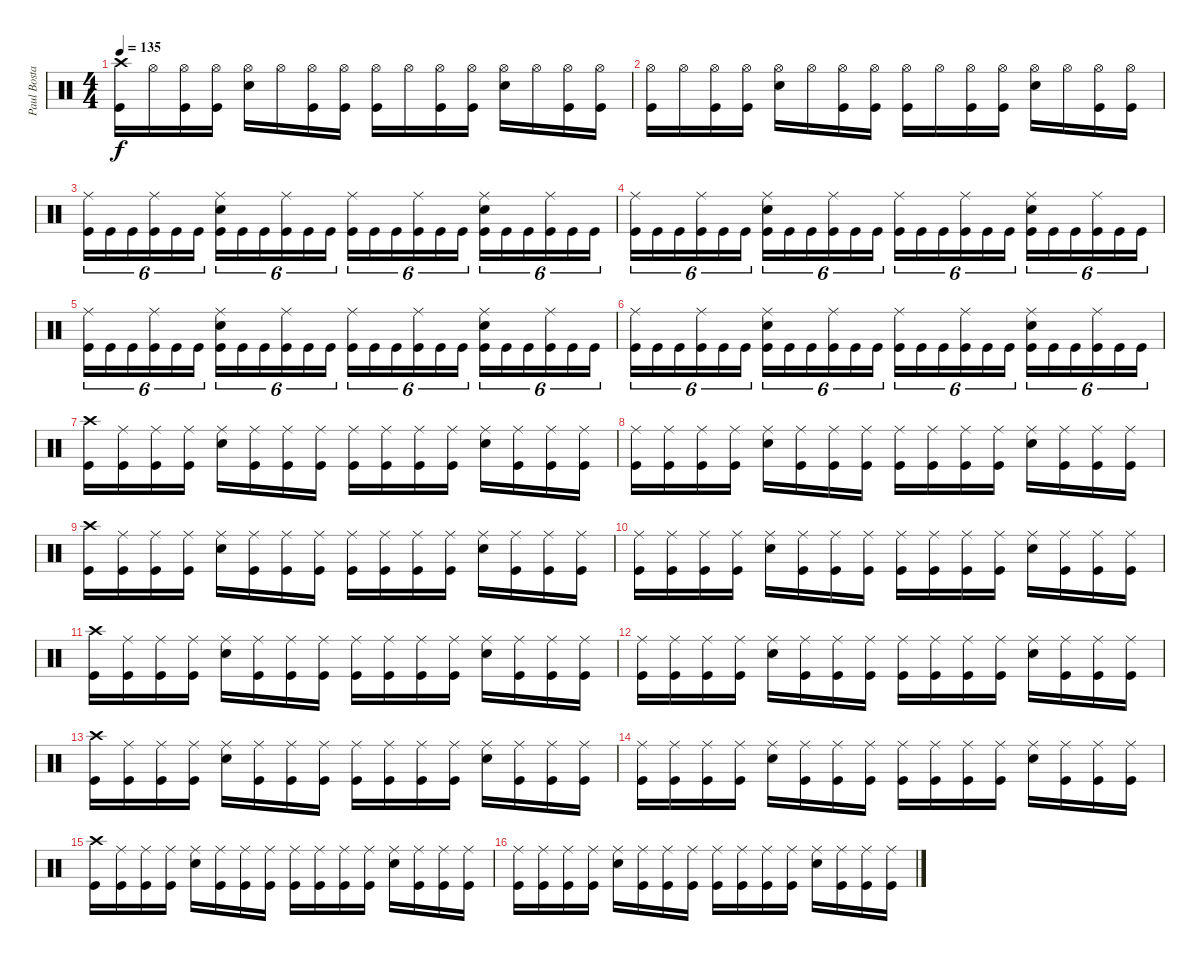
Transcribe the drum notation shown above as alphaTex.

\track ("Paul Bostaph" "Paul Bosta") {instrument percussion}
\staff {score}
\articulation defaults
\ts (4 4)
\tempo 135
\clef neutral
\ks c
("Kick (hit)" "Crash high (hit)").16{dy f} "Hi-Hat (open)".16 ("Kick (hit)" "Hi-Hat (open)").16 ("Kick (hit)" "Hi-Hat (open)").16 ("Snare (hit) 2" "Hi-Hat (open)").16 "Hi-Hat (open)".16 ("Kick (hit)" "Hi-Hat (open)").16 ("Kick (hit)" "Hi-Hat (open)").16 ("Kick (hit)" "Hi-Hat (open)").16 "Hi-Hat (open)".16 ("Kick (hit)" "Hi-Hat (open)").16 ("Kick (hit)" "Hi-Hat (open)").16 ("Snare (hit) 2" "Hi-Hat (open)").16 "Hi-Hat (open)".16 ("Kick (hit)" "Hi-Hat (open)").16 ("Kick (hit)" "Hi-Hat (open)").16 |
("Kick (hit)" "Hi-Hat (open)").16 "Hi-Hat (open)".16 ("Kick (hit)" "Hi-Hat (open)").16 ("Kick (hit)" "Hi-Hat (open)").16 ("Snare (hit) 2" "Hi-Hat (open)").16 "Hi-Hat (open)".16 ("Kick (hit)" "Hi-Hat (open)").16 ("Kick (hit)" "Hi-Hat (open)").16 ("Kick (hit)" "Hi-Hat (open)").16 "Hi-Hat (open)".16 ("Kick (hit)" "Hi-Hat (open)").16 ("Kick (hit)" "Hi-Hat (open)").16 ("Snare (hit) 2" "Hi-Hat (open)").16 "Hi-Hat (open)".16 ("Kick (hit)" "Hi-Hat (open)").16 ("Kick (hit)" "Hi-Hat (open)").16 |
("Ride (middle)" "Kick (hit)").16{tu (6 4)} "Kick (hit)".16{tu (6 4)} "Kick (hit)".16{tu (6 4)} ("Ride (middle)" "Kick (hit)").16{tu (6 4)} "Kick (hit)".16{tu (6 4)} "Kick (hit)".16{tu (6 4)} ("Ride (middle)" "Snare (hit) 2" "Kick (hit)").16{tu (6 4)} "Kick (hit)".16{tu (6 4)} "Kick (hit)".16{tu (6 4)} ("Ride (middle)" "Kick (hit)").16{tu (6 4)} "Kick (hit)".16{tu (6 4)} "Kick (hit)".16{tu (6 4)} ("Ride (middle)" "Kick (hit)").16{tu (6 4)} "Kick (hit)".16{tu (6 4)} "Kick (hit)".16{tu (6 4)} ("Ride (middle)" "Kick (hit)").16{tu (6 4)} "Kick (hit)".16{tu (6 4)} "Kick (hit)".16{tu (6 4)} ("Ride (middle)" "Snare (hit) 2" "Kick (hit)").16{tu (6 4)} "Kick (hit)".16{tu (6 4)} "Kick (hit)".16{tu (6 4)} ("Ride (middle)" "Kick (hit)").16{tu (6 4)} "Kick (hit)".16{tu (6 4)} "Kick (hit)".16{tu (6 4)} |
("Ride (middle)" "Kick (hit)").16{tu (6 4)} "Kick (hit)".16{tu (6 4)} "Kick (hit)".16{tu (6 4)} ("Ride (middle)" "Kick (hit)").16{tu (6 4)} "Kick (hit)".16{tu (6 4)} "Kick (hit)".16{tu (6 4)} ("Ride (middle)" "Snare (hit) 2" "Kick (hit)").16{tu (6 4)} "Kick (hit)".16{tu (6 4)} "Kick (hit)".16{tu (6 4)} ("Ride (middle)" "Kick (hit)").16{tu (6 4)} "Kick (hit)".16{tu (6 4)} "Kick (hit)".16{tu (6 4)} ("Ride (middle)" "Kick (hit)").16{tu (6 4)} "Kick (hit)".16{tu (6 4)} "Kick (hit)".16{tu (6 4)} ("Ride (middle)" "Kick (hit)").16{tu (6 4)} "Kick (hit)".16{tu (6 4)} "Kick (hit)".16{tu (6 4)} ("Ride (middle)" "Snare (hit) 2" "Kick (hit)").16{tu (6 4)} "Kick (hit)".16{tu (6 4)} "Kick (hit)".16{tu (6 4)} ("Ride (middle)" "Kick (hit)").16{tu (6 4)} "Kick (hit)".16{tu (6 4)} "Kick (hit)".16{tu (6 4)} |
("Ride (middle)" "Kick (hit)").16{tu (6 4)} "Kick (hit)".16{tu (6 4)} "Kick (hit)".16{tu (6 4)} ("Ride (middle)" "Kick (hit)").16{tu (6 4)} "Kick (hit)".16{tu (6 4)} "Kick (hit)".16{tu (6 4)} ("Ride (middle)" "Snare (hit) 2" "Kick (hit)").16{tu (6 4)} "Kick (hit)".16{tu (6 4)} "Kick (hit)".16{tu (6 4)} ("Ride (middle)" "Kick (hit)").16{tu (6 4)} "Kick (hit)".16{tu (6 4)} "Kick (hit)".16{tu (6 4)} ("Ride (middle)" "Kick (hit)").16{tu (6 4)} "Kick (hit)".16{tu (6 4)} "Kick (hit)".16{tu (6 4)} ("Ride (middle)" "Kick (hit)").16{tu (6 4)} "Kick (hit)".16{tu (6 4)} "Kick (hit)".16{tu (6 4)} ("Ride (middle)" "Snare (hit) 2" "Kick (hit)").16{tu (6 4)} "Kick (hit)".16{tu (6 4)} "Kick (hit)".16{tu (6 4)} ("Ride (middle)" "Kick (hit)").16{tu (6 4)} "Kick (hit)".16{tu (6 4)} "Kick (hit)".16{tu (6 4)} |
("Ride (middle)" "Kick (hit)").16{tu (6 4)} "Kick (hit)".16{tu (6 4)} "Kick (hit)".16{tu (6 4)} ("Ride (middle)" "Kick (hit)").16{tu (6 4)} "Kick (hit)".16{tu (6 4)} "Kick (hit)".16{tu (6 4)} ("Ride (middle)" "Snare (hit) 2" "Kick (hit)").16{tu (6 4)} "Kick (hit)".16{tu (6 4)} "Kick (hit)".16{tu (6 4)} ("Ride (middle)" "Kick (hit)").16{tu (6 4)} "Kick (hit)".16{tu (6 4)} "Kick (hit)".16{tu (6 4)} ("Ride (middle)" "Kick (hit)").16{tu (6 4)} "Kick (hit)".16{tu (6 4)} "Kick (hit)".16{tu (6 4)} ("Ride (middle)" "Kick (hit)").16{tu (6 4)} "Kick (hit)".16{tu (6 4)} "Kick (hit)".16{tu (6 4)} ("Ride (middle)" "Snare (hit) 2" "Kick (hit)").16{tu (6 4)} "Kick (hit)".16{tu (6 4)} "Kick (hit)".16{tu (6 4)} ("Ride (middle)" "Kick (hit)").16{tu (6 4)} "Kick (hit)".16{tu (6 4)} "Kick (hit)".16{tu (6 4)} |
("Kick (hit)" "Crash high (hit)").16 ("Kick (hit)" "Ride (middle)").16 ("Kick (hit)" "Ride (middle)").16 ("Kick (hit)" "Ride (middle)").16 ("Snare (hit) 2" "Ride (middle)").16 ("Kick (hit)" "Ride (middle)").16 ("Kick (hit)" "Ride (middle)").16 ("Kick (hit)" "Ride (middle)").16 ("Kick (hit)" "Ride (middle)").16 ("Kick (hit)" "Ride (middle)").16 ("Kick (hit)" "Ride (middle)").16 ("Kick (hit)" "Ride (middle)").16 ("Snare (hit) 2" "Ride (middle)").16 ("Kick (hit)" "Ride (middle)").16 ("Kick (hit)" "Ride (middle)").16 ("Kick (hit)" "Ride (middle)").16 |
("Kick (hit)" "Ride (middle)").16 ("Kick (hit)" "Ride (middle)").16 ("Kick (hit)" "Ride (middle)").16 ("Kick (hit)" "Ride (middle)").16 ("Snare (hit) 2" "Ride (middle)").16 ("Kick (hit)" "Ride (middle)").16 ("Kick (hit)" "Ride (middle)").16 ("Kick (hit)" "Ride (middle)").16 ("Kick (hit)" "Ride (middle)").16 ("Kick (hit)" "Ride (middle)").16 ("Kick (hit)" "Ride (middle)").16 ("Kick (hit)" "Ride (middle)").16 ("Snare (hit) 2" "Ride (middle)").16 ("Kick (hit)" "Ride (middle)").16 ("Kick (hit)" "Ride (middle)").16 ("Kick (hit)" "Ride (middle)").16 |
("Kick (hit)" "Crash high (hit)").16 ("Kick (hit)" "Ride (middle)").16 ("Kick (hit)" "Ride (middle)").16 ("Kick (hit)" "Ride (middle)").16 ("Snare (hit) 2" "Ride (middle)").16 ("Kick (hit)" "Ride (middle)").16 ("Kick (hit)" "Ride (middle)").16 ("Kick (hit)" "Ride (middle)").16 ("Kick (hit)" "Ride (middle)").16 ("Kick (hit)" "Ride (middle)").16 ("Kick (hit)" "Ride (middle)").16 ("Kick (hit)" "Ride (middle)").16 ("Snare (hit) 2" "Ride (middle)").16 ("Kick (hit)" "Ride (middle)").16 ("Kick (hit)" "Ride (middle)").16 ("Kick (hit)" "Ride (middle)").16 |
("Kick (hit)" "Ride (middle)").16 ("Kick (hit)" "Ride (middle)").16 ("Kick (hit)" "Ride (middle)").16 ("Kick (hit)" "Ride (middle)").16 ("Snare (hit) 2" "Ride (middle)").16 ("Kick (hit)" "Ride (middle)").16 ("Kick (hit)" "Ride (middle)").16 ("Kick (hit)" "Ride (middle)").16 ("Kick (hit)" "Ride (middle)").16 ("Kick (hit)" "Ride (middle)").16 ("Kick (hit)" "Ride (middle)").16 ("Kick (hit)" "Ride (middle)").16 ("Snare (hit) 2" "Ride (middle)").16 ("Kick (hit)" "Ride (middle)").16 ("Kick (hit)" "Ride (middle)").16 ("Kick (hit)" "Ride (middle)").16 |
("Kick (hit)" "Crash high (hit)").16 ("Kick (hit)" "Ride (middle)").16 ("Kick (hit)" "Ride (middle)").16 ("Kick (hit)" "Ride (middle)").16 ("Snare (hit) 2" "Ride (middle)").16 ("Kick (hit)" "Ride (middle)").16 ("Kick (hit)" "Ride (middle)").16 ("Kick (hit)" "Ride (middle)").16 ("Kick (hit)" "Ride (middle)").16 ("Kick (hit)" "Ride (middle)").16 ("Kick (hit)" "Ride (middle)").16 ("Kick (hit)" "Ride (middle)").16 ("Snare (hit) 2" "Ride (middle)").16 ("Kick (hit)" "Ride (middle)").16 ("Kick (hit)" "Ride (middle)").16 ("Kick (hit)" "Ride (middle)").16 |
("Kick (hit)" "Ride (middle)").16 ("Kick (hit)" "Ride (middle)").16 ("Kick (hit)" "Ride (middle)").16 ("Kick (hit)" "Ride (middle)").16 ("Snare (hit) 2" "Ride (middle)").16 ("Kick (hit)" "Ride (middle)").16 ("Kick (hit)" "Ride (middle)").16 ("Kick (hit)" "Ride (middle)").16 ("Kick (hit)" "Ride (middle)").16 ("Kick (hit)" "Ride (middle)").16 ("Kick (hit)" "Ride (middle)").16 ("Kick (hit)" "Ride (middle)").16 ("Snare (hit) 2" "Ride (middle)").16 ("Kick (hit)" "Ride (middle)").16 ("Kick (hit)" "Ride (middle)").16 ("Kick (hit)" "Ride (middle)").16 |
("Kick (hit)" "Crash high (hit)").16 ("Kick (hit)" "Ride (middle)").16 ("Kick (hit)" "Ride (middle)").16 ("Kick (hit)" "Ride (middle)").16 ("Snare (hit) 2" "Ride (middle)").16 ("Kick (hit)" "Ride (middle)").16 ("Kick (hit)" "Ride (middle)").16 ("Kick (hit)" "Ride (middle)").16 ("Kick (hit)" "Ride (middle)").16 ("Kick (hit)" "Ride (middle)").16 ("Kick (hit)" "Ride (middle)").16 ("Kick (hit)" "Ride (middle)").16 ("Snare (hit) 2" "Ride (middle)").16 ("Kick (hit)" "Ride (middle)").16 ("Kick (hit)" "Ride (middle)").16 ("Kick (hit)" "Ride (middle)").16 |
("Kick (hit)" "Ride (middle)").16 ("Kick (hit)" "Ride (middle)").16 ("Kick (hit)" "Ride (middle)").16 ("Kick (hit)" "Ride (middle)").16 ("Snare (hit) 2" "Ride (middle)").16 ("Kick (hit)" "Ride (middle)").16 ("Kick (hit)" "Ride (middle)").16 ("Kick (hit)" "Ride (middle)").16 ("Kick (hit)" "Ride (middle)").16 ("Kick (hit)" "Ride (middle)").16 ("Kick (hit)" "Ride (middle)").16 ("Kick (hit)" "Ride (middle)").16 ("Snare (hit) 2" "Ride (middle)").16 ("Kick (hit)" "Ride (middle)").16 ("Kick (hit)" "Ride (middle)").16 ("Kick (hit)" "Ride (middle)").16 |
("Kick (hit)" "Crash high (hit)").16 ("Kick (hit)" "Ride (middle)").16 ("Kick (hit)" "Ride (middle)").16 ("Kick (hit)" "Ride (middle)").16 ("Snare (hit) 2" "Ride (middle)").16 ("Kick (hit)" "Ride (middle)").16 ("Kick (hit)" "Ride (middle)").16 ("Kick (hit)" "Ride (middle)").16 ("Kick (hit)" "Ride (middle)").16 ("Kick (hit)" "Ride (middle)").16 ("Kick (hit)" "Ride (middle)").16 ("Kick (hit)" "Ride (middle)").16 ("Snare (hit) 2" "Ride (middle)").16 ("Kick (hit)" "Ride (middle)").16 ("Kick (hit)" "Ride (middle)").16 ("Kick (hit)" "Ride (middle)").16 |
("Kick (hit)" "Ride (middle)").16 ("Kick (hit)" "Ride (middle)").16 ("Kick (hit)" "Ride (middle)").16 ("Kick (hit)" "Ride (middle)").16 ("Snare (hit) 2" "Ride (middle)").16 ("Kick (hit)" "Ride (middle)").16 ("Kick (hit)" "Ride (middle)").16 ("Kick (hit)" "Ride (middle)").16 ("Kick (hit)" "Ride (middle)").16 ("Kick (hit)" "Ride (middle)").16 ("Kick (hit)" "Ride (middle)").16 ("Kick (hit)" "Ride (middle)").16 ("Snare (hit) 2" "Ride (middle)").16 ("Kick (hit)" "Ride (middle)").16 ("Kick (hit)" "Ride (middle)").16 ("Kick (hit)" "Ride (middle)").16
